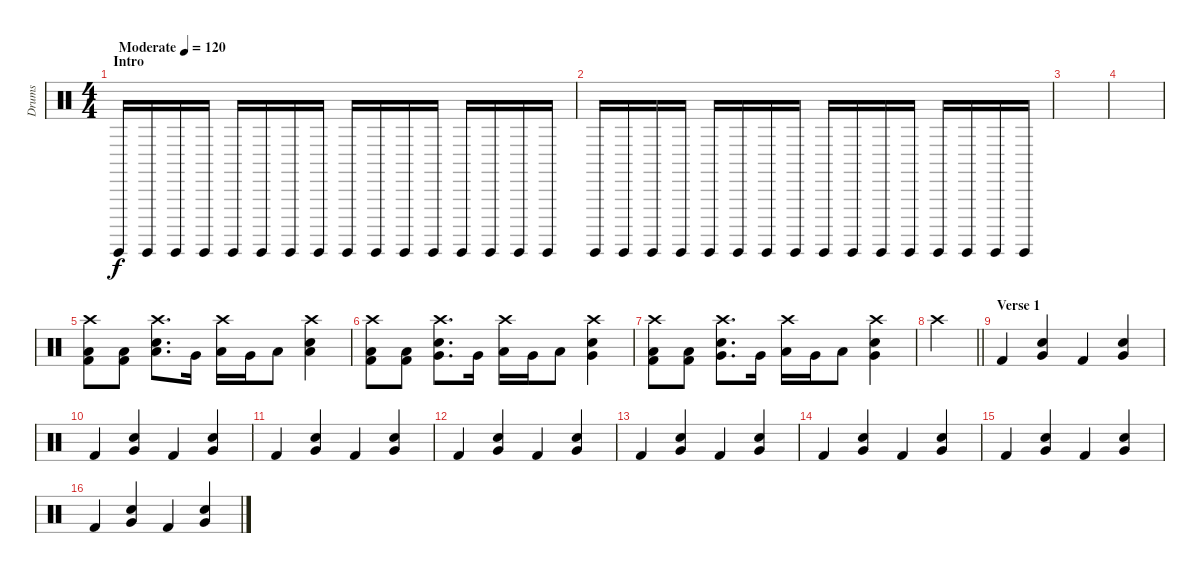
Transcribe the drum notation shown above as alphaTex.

\track ("Drums" "Drums") {instrument percussion}
\staff {score}
\articulation defaults
\ts (4 4)
\section ("" "Intro")
\tempo (120 "Moderate")
\clef neutral
\ks c "Guiro (hit)".16{dy f} "Guiro (hit)".16 "Guiro (hit)".16 "Guiro (hit)".16 "Guiro (hit)".16 "Guiro (hit)".16 "Guiro (hit)".16 "Guiro (hit)".16 "Guiro (hit)".16 "Guiro (hit)".16 "Guiro (hit)".16 "Guiro (hit)".16 "Guiro (hit)".16 "Guiro (hit)".16 "Guiro (hit)".16 "Guiro (hit)".16
|
"Guiro (hit)".16 "Guiro (hit)".16 "Guiro (hit)".16 "Guiro (hit)".16 "Guiro (hit)".16 "Guiro (hit)".16 "Guiro (hit)".16 "Guiro (hit)".16 "Guiro (hit)".16 "Guiro (hit)".16 "Guiro (hit)".16 "Guiro (hit)".16 "Guiro (hit)".16 "Guiro (hit)".16 "Guiro (hit)".16 "Guiro (hit)".16 |
|
|
("Low Floor Tom (hit)" "Kick (hit) 2" "Crash high (hit)").8 ("Low Floor Tom (hit)" "Kick (hit) 2").8 ("Low Tom (hit)" "Electric Snare (hit)" "Crash high (hit)").8{d} "Very Low Tom (hit)".16 ("Low Tom (hit)" "Crash high (hit)").16 "Very Low Tom (hit)".16 "Low Tom (hit)".8 ("Electric Snare (hit)" "Low Tom (hit)" "Crash high (hit)").4 |
("Low Floor Tom (hit)" "Kick (hit) 2" "Crash high (hit)").8 ("Low Floor Tom (hit)" "Kick (hit) 2").8 ("Very Low Tom (hit)" "Electric Snare (hit)" "Crash high (hit)").8{d} "Very Low Tom (hit)".16 ("Low Tom (hit)" "Crash high (hit)").16 "Very Low Tom (hit)".16 "Low Tom (hit)".8 ("Electric Snare (hit)" "Very Low Tom (hit)" "Crash high (hit)").4 |
("Low Floor Tom (hit)" "Kick (hit) 2" "Crash high (hit)").8 ("Low Floor Tom (hit)" "Kick (hit) 2").8 ("Very Low Tom (hit)" "Electric Snare (hit)" "Crash high (hit)").8{d} "Very Low Tom (hit)".16 ("Low Floor Tom (hit)" "Crash high (hit)").16 "Very Low Tom (hit)".16 "Low Floor Tom (hit)".8 ("Electric Snare (hit)" "Very Low Tom (hit)" "Crash high (hit)").4 |
\barLineRight lightlight "Crash high (hit)".4
|
\section ("" "Verse 1")
"Kick (hit) 2".4 ("Electric Snare (hit)" "Very Low Tom (hit)").4 "Kick (hit) 2".4 ("Electric Snare (hit)" "Very Low Tom (hit)").4 |
"Kick (hit) 2".4 ("Electric Snare (hit)" "Very Low Tom (hit)").4 "Kick (hit) 2".4 ("Electric Snare (hit)" "Very Low Tom (hit)").4 |
"Kick (hit) 2".4 ("Electric Snare (hit)" "Very Low Tom (hit)").4 "Kick (hit) 2".4 ("Electric Snare (hit)" "Very Low Tom (hit)").4 |
"Kick (hit) 2".4 ("Electric Snare (hit)" "Very Low Tom (hit)").4 "Kick (hit) 2".4 ("Electric Snare (hit)" "Very Low Tom (hit)").4 |
"Kick (hit) 2".4 ("Electric Snare (hit)" "Very Low Tom (hit)").4 "Kick (hit) 2".4 ("Electric Snare (hit)" "Very Low Tom (hit)").4 |
"Kick (hit) 2".4 ("Electric Snare (hit)" "Very Low Tom (hit)").4 "Kick (hit) 2".4 ("Electric Snare (hit)" "Very Low Tom (hit)").4 |
"Kick (hit) 2".4 ("Electric Snare (hit)" "Very Low Tom (hit)").4 "Kick (hit) 2".4 ("Electric Snare (hit)" "Very Low Tom (hit)").4 |
"Kick (hit) 2".4 ("Electric Snare (hit)" "Very Low Tom (hit)").4 "Kick (hit) 2".4 ("Electric Snare (hit)" "Very Low Tom (hit)").4
